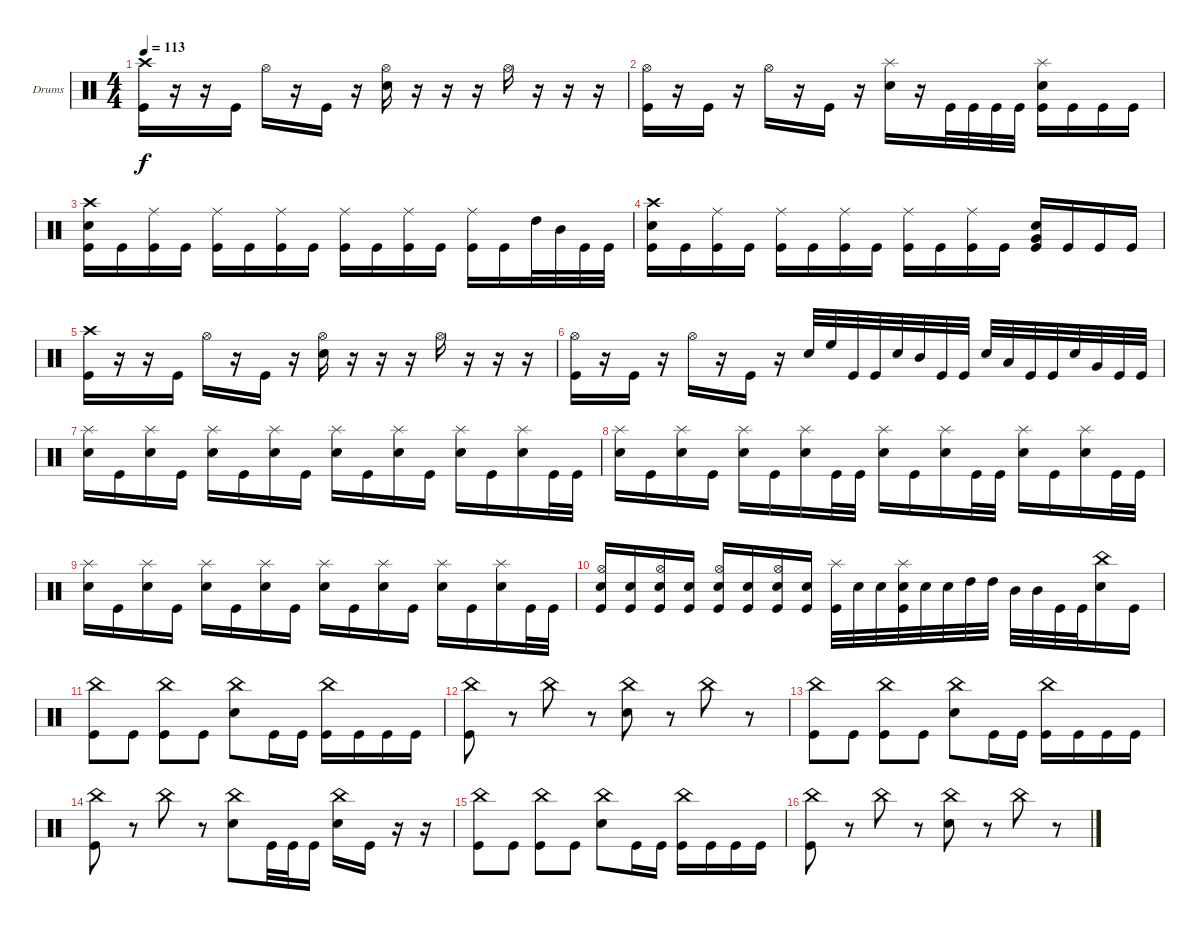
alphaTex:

\bracketExtendMode groupsimilarinstruments
\firstSystemTrackNameOrientation horizontal
\otherSystemsTrackNameOrientation horizontal
\track ("Drumkit" "Drums") {instrument percussion}
\staff {score}
\articulation defaults
\ts (4 4)
\tempo 113
\clef neutral
\ks c
("Crash high (hit)" "Kick (hit)").16{dy f} r.16 r.16 "Kick (hit)".16 "Hi-Hat (open)".16 r.16 "Kick (hit)".16 r.16 ("Hi-Hat (open)" "Snare (hit) 2").16 r.16 r.16 r.16 "Hi-Hat (open)".16 r.16 r.16 r.16 |
("Hi-Hat (open)" "Kick (hit)").16 r.16 "Kick (hit)".16 r.16 "Hi-Hat (open)".16 r.16 "Kick (hit)".16 r.16 ("Splash (hit)" "Snare (hit) 2").16 r.16 "Kick (hit)".32 "Kick (hit)".32 "Kick (hit)".32 "Kick (hit)".32 ("Splash (hit)" "Snare (hit) 2" "Kick (hit)").16 "Kick (hit)".16 "Kick (hit)".16 "Kick (hit)".16 |
("Crash high (hit)" "Snare (hit) 2" "Kick (hit)").16 "Kick (hit)".16 ("Ride (middle)" "Kick (hit)").16 "Kick (hit)".16 ("Ride (middle)" "Kick (hit)").16 "Kick (hit)".16 ("Ride (middle)" "Kick (hit)").16 "Kick (hit)".16 ("Ride (middle)" "Kick (hit)").16 "Kick (hit)".16 ("Ride (middle)" "Kick (hit)").16 "Kick (hit)".16 ("Ride (middle)" "Kick (hit)").16 "Kick (hit)".16 "High Tom (hit)".32 "Mid Tom (hit)".32 "Kick (hit)".32 "Kick (hit)".32 |
("Crash high (hit)" "Snare (hit) 2" "Kick (hit)").16 "Kick (hit)".16 ("Ride (middle)" "Kick (hit)").16 "Kick (hit)".16 ("Ride (middle)" "Kick (hit)").16 "Kick (hit)".16 ("Ride (middle)" "Kick (hit)").16 "Kick (hit)".16 ("Ride (middle)" "Kick (hit)").16 "Kick (hit)".16 ("Ride (middle)" "Kick (hit)").16 "Kick (hit)".16 ("Snare (hit) 2" "Very Low Tom (hit)" "Kick (hit)").16 "Kick (hit)".16 "Kick (hit)".16 "Kick (hit)".16 |
("Crash high (hit)" "Kick (hit)").16 r.16 r.16 "Kick (hit)".16 "Hi-Hat (open)".16 r.16 "Kick (hit)".16 r.16 ("Hi-Hat (open)" "Snare (hit) 2").16 r.16 r.16 r.16 "Hi-Hat (open)".16 r.16 r.16 r.16 |
("Hi-Hat (open)" "Kick (hit)").16 r.16 "Kick (hit)".16 r.16 "Hi-Hat (open)".16 r.16 "Kick (hit)".16 r.16 "Snare (hit) 2".32 "High Floor Tom (hit)".32 "Kick (hit)".32 "Kick (hit)".32 "Snare (hit) 2".32 "Mid Tom (hit)".32 "Kick (hit)".32 "Kick (hit)".32 "Snare (hit) 2".32 "Low Tom (hit)".32 "Kick (hit)".32 "Kick (hit)".32 "Snare (hit) 2".32 "Very Low Tom (hit)".32 "Kick (hit)".32 "Kick (hit)".32 |
("Splash (hit)" "Snare (hit) 2").16 "Kick (hit)".16 ("Splash (hit)" "Snare (hit) 2").16 "Kick (hit)".16 ("Splash (hit)" "Snare (hit) 2").16 "Kick (hit)".16 ("Splash (hit)" "Snare (hit) 2").16 "Kick (hit)".16 ("Splash (hit)" "Snare (hit) 2").16 "Kick (hit)".16 ("Splash (hit)" "Snare (hit) 2").16 "Kick (hit)".16 ("Splash (hit)" "Snare (hit) 2").16 "Kick (hit)".16 ("Splash (hit)" "Snare (hit) 2").16 "Kick (hit)".32 "Kick (hit)".32 |
("Splash (hit)" "Snare (hit) 2").16 "Kick (hit)".16 ("Splash (hit)" "Snare (hit) 2").16 "Kick (hit)".16 ("Splash (hit)" "Snare (hit) 2").16 "Kick (hit)".16 ("Splash (hit)" "Snare (hit) 2").16 "Kick (hit)".32 "Kick (hit)".32 ("Splash (hit)" "Snare (hit) 2").16 "Kick (hit)".16 ("Splash (hit)" "Snare (hit) 2").16 "Kick (hit)".32 "Kick (hit)".32 ("Splash (hit)" "Snare (hit) 2").16 "Kick (hit)".16 ("Splash (hit)" "Snare (hit) 2").16 "Kick (hit)".32 "Kick (hit)".32 |
("Splash (hit)" "Snare (hit) 2").16 "Kick (hit)".16 ("Splash (hit)" "Snare (hit) 2").16 "Kick (hit)".16 ("Splash (hit)" "Snare (hit) 2").16 "Kick (hit)".16 ("Splash (hit)" "Snare (hit) 2").16 "Kick (hit)".16 ("Splash (hit)" "Snare (hit) 2").16 "Kick (hit)".16 ("Splash (hit)" "Snare (hit) 2").16 "Kick (hit)".16 ("Splash (hit)" "Snare (hit) 2").16 "Kick (hit)".16 ("Splash (hit)" "Snare (hit) 2").16 "Kick (hit)".32 "Kick (hit)".32 |
("Hi-Hat (open)" "Snare (hit) 2" "Kick (hit)").16 ("Snare (hit) 2" "Kick (hit)").16 ("Hi-Hat (open)" "Snare (hit) 2" "Kick (hit)").16 ("Snare (hit) 2" "Kick (hit)").16 ("Hi-Hat (open)" "Snare (hit) 2" "Kick (hit)").16 ("Snare (hit) 2" "Kick (hit)").16 ("Hi-Hat (open)" "Snare (hit) 2" "Kick (hit)").16 ("Snare (hit) 2" "Kick (hit)").16 ("Splash (hit)" "Kick (hit)").32 "Snare (hit) 2".32 "Snare (hit) 2".32 ("Splash (hit)" "Snare (hit) 2" "Kick (hit)").32 "Snare (hit) 2".32 "Snare (hit) 2".32 "High Tom (hit)".32 "High Tom (hit)".32 "Mid Tom (hit)".32 "Mid Tom (hit)".32 "Kick (hit)".32 "Kick (hit)".32 ("China (hit)" "Snare (hit) 2").16 "Kick (hit)".16 |
("China (hit)" "Kick (hit)").8 "Kick (hit)".8 ("China (hit)" "Kick (hit)").8 "Kick (hit)".8 ("China (hit)" "Snare (hit) 2").8 "Kick (hit)".16 "Kick (hit)".16 ("China (hit)" "Kick (hit)").16 "Kick (hit)".16 "Kick (hit)".16 "Kick (hit)".16 |
("China (hit)" "Kick (hit)").8 r.8 "China (hit)".8 r.8 ("China (hit)" "Snare (hit) 2").8 r.8 "China (hit)".8 r.8 |
("China (hit)" "Kick (hit)").8 "Kick (hit)".8 ("China (hit)" "Kick (hit)").8 "Kick (hit)".8 ("China (hit)" "Snare (hit) 2").8 "Kick (hit)".16 "Kick (hit)".16 ("China (hit)" "Kick (hit)").16 "Kick (hit)".16 "Kick (hit)".16 "Kick (hit)".16 |
("China (hit)" "Kick (hit)").8 r.8 "China (hit)".8 r.8 ("China (hit)" "Snare (hit) 2").8 "Kick (hit)".32 "Kick (hit)".32 "Kick (hit)".16 ("China (hit)" "Snare (hit) 2").16 "Kick (hit)".16 r.16 r.16 |
("China (hit)" "Kick (hit)").8 "Kick (hit)".8 ("China (hit)" "Kick (hit)").8 "Kick (hit)".8 ("China (hit)" "Snare (hit) 2").8 "Kick (hit)".16 "Kick (hit)".16 ("China (hit)" "Kick (hit)").16 "Kick (hit)".16 "Kick (hit)".16 "Kick (hit)".16 |
("China (hit)" "Kick (hit)").8 r.8 "China (hit)".8 r.8 ("China (hit)" "Snare (hit) 2").8 r.8 "China (hit)".8 r.8
